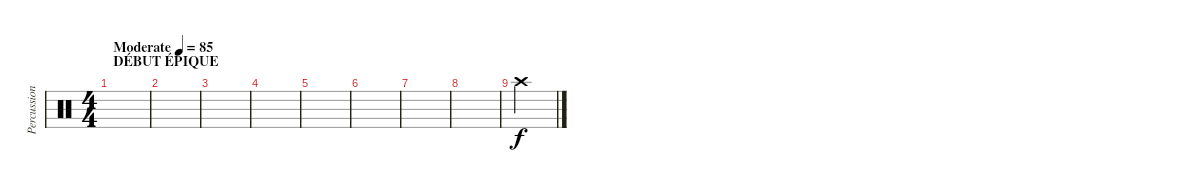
\track ("Percussions" "Percussion") {instrument percussion}
\staff {score}
\articulation defaults
\ts (4 4)
\section ("" "DÉBUT ÉPIQUE")
\tempo (85 "Moderate")
\clef neutral
\ks c
|
|
|
|
|
|
|
|
"Crash high (hit)".4
